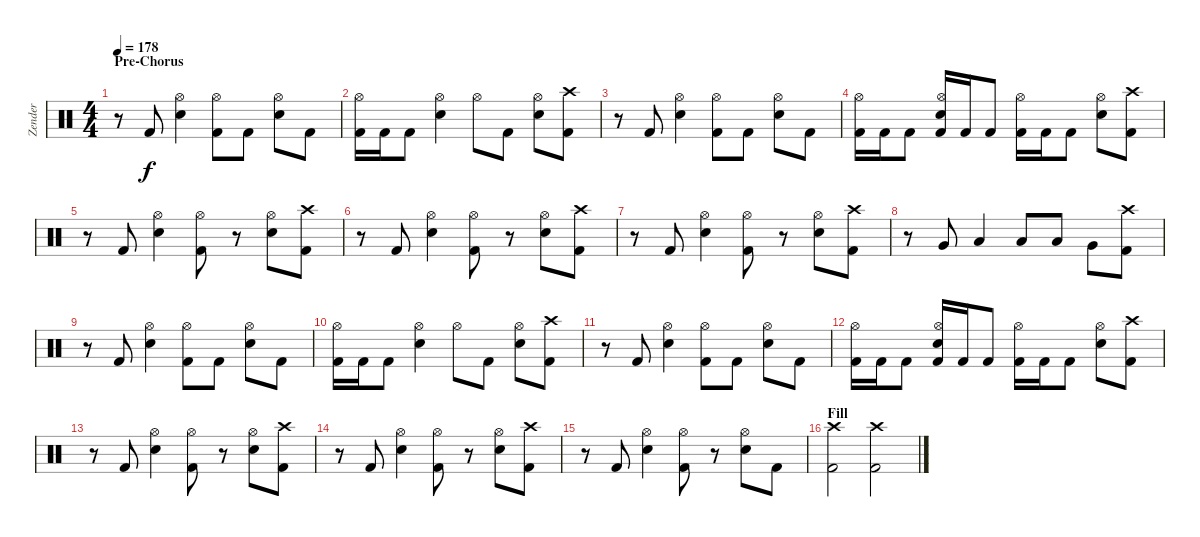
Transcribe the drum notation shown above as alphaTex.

\track ("Zender" "Zender") {instrument percussion}
\staff {score}
\articulation defaults
\ts (4 4)
\section ("" "Pre-Chorus")
\tempo 178
\clef neutral
\ks c
r.8{dy f} "Kick (hit) 2".8 ("Hi-Hat (open)" "Electric Snare (hit)").4 ("Hi-Hat (open)" "Kick (hit) 2").8 "Kick (hit) 2".8 ("Hi-Hat (open)" "Electric Snare (hit)").8 "Kick (hit) 2".8 |
("Hi-Hat (open)" "Kick (hit) 2").16 "Kick (hit) 2".16 "Kick (hit) 2".8 ("Hi-Hat (open)" "Electric Snare (hit)").4 "Hi-Hat (open)".8 "Kick (hit) 2".8 ("Hi-Hat (open)" "Electric Snare (hit)").8 ("Crash high (hit)" "Kick (hit) 2").8 |
r.8 "Kick (hit) 2".8 ("Hi-Hat (open)" "Electric Snare (hit)").4 ("Hi-Hat (open)" "Kick (hit) 2").8 "Kick (hit) 2".8 ("Hi-Hat (open)" "Electric Snare (hit)").8 "Kick (hit) 2".8 |
("Hi-Hat (open)" "Kick (hit) 2").16 "Kick (hit) 2".16 "Kick (hit) 2".8 ("Hi-Hat (open)" "Electric Snare (hit)" "Kick (hit) 2").16 "Kick (hit) 2".16 "Kick (hit) 2".8 ("Hi-Hat (open)" "Kick (hit) 2").16 "Kick (hit) 2".16 "Kick (hit) 2".8 ("Hi-Hat (open)" "Electric Snare (hit)").8 ("Crash high (hit)" "Kick (hit) 2").8 |
r.8 "Kick (hit) 2".8 ("Hi-Hat (open)" "Electric Snare (hit)").4 ("Hi-Hat (open)" "Kick (hit) 2").8 r.8 ("Hi-Hat (open)" "Electric Snare (hit)").8 ("Crash high (hit)" "Kick (hit) 2").8 |
r.8 "Kick (hit) 2".8 ("Hi-Hat (open)" "Electric Snare (hit)").4 ("Hi-Hat (open)" "Kick (hit) 2").8 r.8 ("Hi-Hat (open)" "Electric Snare (hit)").8 ("Crash high (hit)" "Kick (hit) 2").8 |
r.8 "Kick (hit) 2".8 ("Hi-Hat (open)" "Electric Snare (hit)").4 ("Hi-Hat (open)" "Kick (hit) 2").8 r.8 ("Hi-Hat (open)" "Electric Snare (hit)").8 ("Crash high (hit)" "Kick (hit) 2").8 |
r.8 "Very Low Tom (hit)".8 "Low Floor Tom (hit)".4 "Low Floor Tom (hit)".8 "Low Tom (hit)".8 "Very Low Tom (hit)".8 ("Crash high (hit)" "Kick (hit) 2").8 |
r.8 "Kick (hit) 2".8 ("Hi-Hat (open)" "Electric Snare (hit)").4 ("Hi-Hat (open)" "Kick (hit) 2").8 "Kick (hit) 2".8 ("Hi-Hat (open)" "Electric Snare (hit)").8 "Kick (hit) 2".8 |
("Hi-Hat (open)" "Kick (hit) 2").16 "Kick (hit) 2".16 "Kick (hit) 2".8 ("Hi-Hat (open)" "Electric Snare (hit)").4 "Hi-Hat (open)".8 "Kick (hit) 2".8 ("Hi-Hat (open)" "Electric Snare (hit)").8 ("Crash high (hit)" "Kick (hit) 2").8 |
r.8 "Kick (hit) 2".8 ("Hi-Hat (open)" "Electric Snare (hit)").4 ("Hi-Hat (open)" "Kick (hit) 2").8 "Kick (hit) 2".8 ("Hi-Hat (open)" "Electric Snare (hit)").8 "Kick (hit) 2".8 |
("Hi-Hat (open)" "Kick (hit) 2").16 "Kick (hit) 2".16 "Kick (hit) 2".8 ("Hi-Hat (open)" "Electric Snare (hit)" "Kick (hit) 2").16 "Kick (hit) 2".16 "Kick (hit) 2".8 ("Hi-Hat (open)" "Kick (hit) 2").16 "Kick (hit) 2".16 "Kick (hit) 2".8 ("Hi-Hat (open)" "Electric Snare (hit)").8 ("Crash high (hit)" "Kick (hit) 2").8 |
r.8 "Kick (hit) 2".8 ("Hi-Hat (open)" "Electric Snare (hit)").4 ("Hi-Hat (open)" "Kick (hit) 2").8 r.8 ("Hi-Hat (open)" "Electric Snare (hit)").8 ("Crash high (hit)" "Kick (hit) 2").8 |
r.8 "Kick (hit) 2".8 ("Hi-Hat (open)" "Electric Snare (hit)").4 ("Hi-Hat (open)" "Kick (hit) 2").8 r.8 ("Hi-Hat (open)" "Electric Snare (hit)").8 ("Crash high (hit)" "Kick (hit) 2").8 |
r.8 "Kick (hit) 2".8 ("Hi-Hat (open)" "Electric Snare (hit)").4 ("Hi-Hat (open)" "Kick (hit) 2").8 r.8 ("Hi-Hat (open)" "Electric Snare (hit)").8 "Kick (hit) 2".8 |
\section ("" "Fill")
("Crash high (hit)" "Kick (hit) 2").2 ("Crash high (hit)" "Kick (hit) 2").2
